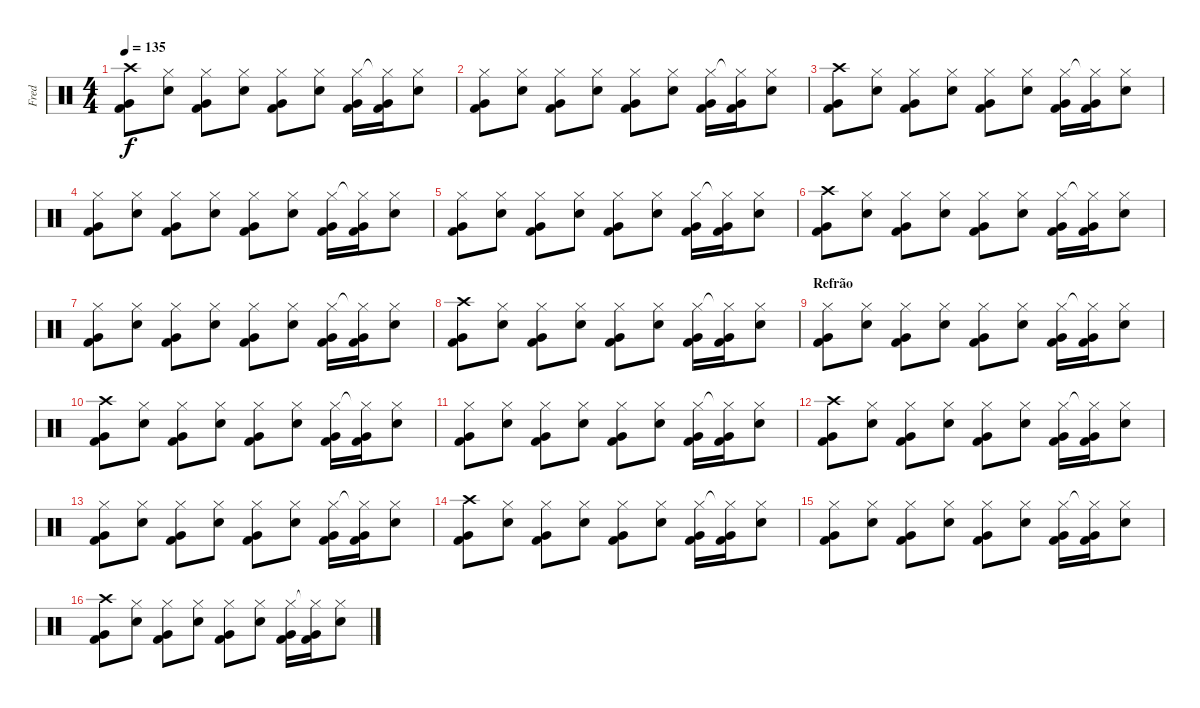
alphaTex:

\track ("Fred" "Fred") {instrument percussion}
\staff {score}
\articulation defaults
\ts (4 4)
\tempo 135
\clef neutral
\ks c
("Very Low Tom (hit)" "Kick (hit) 2" "Crash high (hit)").8{dy f} ("Snare (hit) 2" "Hi-Hat (closed)").8 ("Very Low Tom (hit)" "Kick (hit) 2" "Hi-Hat (closed)").8 ("Snare (hit) 2" "Hi-Hat (closed)").8 ("Very Low Tom (hit)" "Kick (hit) 2" "Hi-Hat (closed)").8 ("Snare (hit) 2" "Hi-Hat (closed)").8 ("Very Low Tom (hit)" "Kick (hit) 2" "Hi-Hat (closed)").16 ("Very Low Tom (hit)" "Kick (hit) 2" "Hi-Hat (closed)"{t}).16 ("Snare (hit) 2" "Hi-Hat (closed)").8 |
("Very Low Tom (hit)" "Kick (hit) 2" "Hi-Hat (closed)").8 ("Snare (hit) 2" "Hi-Hat (closed)").8 ("Very Low Tom (hit)" "Kick (hit) 2" "Hi-Hat (closed)").8 ("Snare (hit) 2" "Hi-Hat (closed)").8 ("Very Low Tom (hit)" "Kick (hit) 2" "Hi-Hat (closed)").8 ("Snare (hit) 2" "Hi-Hat (closed)").8 ("Very Low Tom (hit)" "Kick (hit) 2" "Hi-Hat (closed)").16 ("Very Low Tom (hit)" "Kick (hit) 2" "Hi-Hat (closed)"{t}).16 ("Snare (hit) 2" "Hi-Hat (closed)").8 |
("Very Low Tom (hit)" "Kick (hit) 2" "Crash high (hit)").8 ("Snare (hit) 2" "Hi-Hat (closed)").8 ("Very Low Tom (hit)" "Kick (hit) 2" "Hi-Hat (closed)").8 ("Snare (hit) 2" "Hi-Hat (closed)").8 ("Very Low Tom (hit)" "Kick (hit) 2" "Hi-Hat (closed)").8 ("Snare (hit) 2" "Hi-Hat (closed)").8 ("Very Low Tom (hit)" "Kick (hit) 2" "Hi-Hat (closed)").16 ("Very Low Tom (hit)" "Kick (hit) 2" "Hi-Hat (closed)"{t}).16 ("Snare (hit) 2" "Hi-Hat (closed)").8 |
("Very Low Tom (hit)" "Kick (hit) 2" "Hi-Hat (closed)").8 ("Snare (hit) 2" "Hi-Hat (closed)").8 ("Very Low Tom (hit)" "Kick (hit) 2" "Hi-Hat (closed)").8 ("Snare (hit) 2" "Hi-Hat (closed)").8 ("Very Low Tom (hit)" "Kick (hit) 2" "Hi-Hat (closed)").8 ("Snare (hit) 2" "Hi-Hat (closed)").8 ("Very Low Tom (hit)" "Kick (hit) 2" "Hi-Hat (closed)").16 ("Very Low Tom (hit)" "Kick (hit) 2" "Hi-Hat (closed)"{t}).16 ("Snare (hit) 2" "Hi-Hat (closed)").8 |
("Very Low Tom (hit)" "Kick (hit) 2" "Hi-Hat (closed)").8 ("Snare (hit) 2" "Hi-Hat (closed)").8 ("Very Low Tom (hit)" "Kick (hit) 2" "Hi-Hat (closed)").8 ("Snare (hit) 2" "Hi-Hat (closed)").8 ("Very Low Tom (hit)" "Kick (hit) 2" "Hi-Hat (closed)").8 ("Snare (hit) 2" "Hi-Hat (closed)").8 ("Very Low Tom (hit)" "Kick (hit) 2" "Hi-Hat (closed)").16 ("Very Low Tom (hit)" "Kick (hit) 2" "Hi-Hat (closed)"{t}).16 ("Snare (hit) 2" "Hi-Hat (closed)").8 |
("Very Low Tom (hit)" "Kick (hit) 2" "Crash high (hit)").8 ("Snare (hit) 2" "Hi-Hat (closed)").8 ("Very Low Tom (hit)" "Kick (hit) 2" "Hi-Hat (closed)").8 ("Snare (hit) 2" "Hi-Hat (closed)").8 ("Very Low Tom (hit)" "Kick (hit) 2" "Hi-Hat (closed)").8 ("Snare (hit) 2" "Hi-Hat (closed)").8 ("Very Low Tom (hit)" "Kick (hit) 2" "Hi-Hat (closed)").16 ("Very Low Tom (hit)" "Kick (hit) 2" "Hi-Hat (closed)"{t}).16 ("Snare (hit) 2" "Hi-Hat (closed)").8 |
("Very Low Tom (hit)" "Kick (hit) 2" "Hi-Hat (closed)").8 ("Snare (hit) 2" "Hi-Hat (closed)").8 ("Very Low Tom (hit)" "Kick (hit) 2" "Hi-Hat (closed)").8 ("Snare (hit) 2" "Hi-Hat (closed)").8 ("Very Low Tom (hit)" "Kick (hit) 2" "Hi-Hat (closed)").8 ("Snare (hit) 2" "Hi-Hat (closed)").8 ("Very Low Tom (hit)" "Kick (hit) 2" "Hi-Hat (closed)").16 ("Very Low Tom (hit)" "Kick (hit) 2" "Hi-Hat (closed)"{t}).16 ("Snare (hit) 2" "Hi-Hat (closed)").8 |
("Very Low Tom (hit)" "Kick (hit) 2" "Crash high (hit)").8 ("Snare (hit) 2" "Hi-Hat (closed)").8 ("Very Low Tom (hit)" "Kick (hit) 2" "Hi-Hat (closed)").8 ("Snare (hit) 2" "Hi-Hat (closed)").8 ("Very Low Tom (hit)" "Kick (hit) 2" "Hi-Hat (closed)").8 ("Snare (hit) 2" "Hi-Hat (closed)").8 ("Very Low Tom (hit)" "Kick (hit) 2" "Hi-Hat (closed)").16 ("Very Low Tom (hit)" "Kick (hit) 2" "Hi-Hat (closed)"{t}).16 ("Snare (hit) 2" "Hi-Hat (closed)").8 |
\section ("" "Refrão")
("Very Low Tom (hit)" "Kick (hit) 2" "Hi-Hat (closed)").8 ("Snare (hit) 2" "Hi-Hat (closed)").8 ("Very Low Tom (hit)" "Kick (hit) 2" "Hi-Hat (closed)").8 ("Snare (hit) 2" "Hi-Hat (closed)").8 ("Very Low Tom (hit)" "Kick (hit) 2" "Hi-Hat (closed)").8 ("Snare (hit) 2" "Hi-Hat (closed)").8 ("Very Low Tom (hit)" "Kick (hit) 2" "Hi-Hat (closed)").16 ("Very Low Tom (hit)" "Kick (hit) 2" "Hi-Hat (closed)"{t}).16 ("Snare (hit) 2" "Hi-Hat (closed)").8 |
("Very Low Tom (hit)" "Kick (hit) 2" "Crash high (hit)").8 ("Snare (hit) 2" "Hi-Hat (closed)").8 ("Very Low Tom (hit)" "Kick (hit) 2" "Hi-Hat (closed)").8 ("Snare (hit) 2" "Hi-Hat (closed)").8 ("Very Low Tom (hit)" "Kick (hit) 2" "Hi-Hat (closed)").8 ("Snare (hit) 2" "Hi-Hat (closed)").8 ("Very Low Tom (hit)" "Kick (hit) 2" "Hi-Hat (closed)").16 ("Very Low Tom (hit)" "Kick (hit) 2" "Hi-Hat (closed)"{t}).16 ("Snare (hit) 2" "Hi-Hat (closed)").8 |
("Very Low Tom (hit)" "Kick (hit) 2" "Hi-Hat (closed)").8 ("Snare (hit) 2" "Hi-Hat (closed)").8 ("Very Low Tom (hit)" "Kick (hit) 2" "Hi-Hat (closed)").8 ("Snare (hit) 2" "Hi-Hat (closed)").8 ("Very Low Tom (hit)" "Kick (hit) 2" "Hi-Hat (closed)").8 ("Snare (hit) 2" "Hi-Hat (closed)").8 ("Very Low Tom (hit)" "Kick (hit) 2" "Hi-Hat (closed)").16 ("Very Low Tom (hit)" "Kick (hit) 2" "Hi-Hat (closed)"{t}).16 ("Snare (hit) 2" "Hi-Hat (closed)").8 |
("Very Low Tom (hit)" "Kick (hit) 2" "Crash high (hit)").8 ("Snare (hit) 2" "Hi-Hat (closed)").8 ("Very Low Tom (hit)" "Kick (hit) 2" "Hi-Hat (closed)").8 ("Snare (hit) 2" "Hi-Hat (closed)").8 ("Very Low Tom (hit)" "Kick (hit) 2" "Hi-Hat (closed)").8 ("Snare (hit) 2" "Hi-Hat (closed)").8 ("Very Low Tom (hit)" "Kick (hit) 2" "Hi-Hat (closed)").16 ("Very Low Tom (hit)" "Kick (hit) 2" "Hi-Hat (closed)"{t}).16 ("Snare (hit) 2" "Hi-Hat (closed)").8 |
("Very Low Tom (hit)" "Kick (hit) 2" "Hi-Hat (closed)").8 ("Snare (hit) 2" "Hi-Hat (closed)").8 ("Very Low Tom (hit)" "Kick (hit) 2" "Hi-Hat (closed)").8 ("Snare (hit) 2" "Hi-Hat (closed)").8 ("Very Low Tom (hit)" "Kick (hit) 2" "Hi-Hat (closed)").8 ("Snare (hit) 2" "Hi-Hat (closed)").8 ("Very Low Tom (hit)" "Kick (hit) 2" "Hi-Hat (closed)").16 ("Very Low Tom (hit)" "Kick (hit) 2" "Hi-Hat (closed)"{t}).16 ("Snare (hit) 2" "Hi-Hat (closed)").8 |
("Very Low Tom (hit)" "Kick (hit) 2" "Crash high (hit)").8 ("Snare (hit) 2" "Hi-Hat (closed)").8 ("Very Low Tom (hit)" "Kick (hit) 2" "Hi-Hat (closed)").8 ("Snare (hit) 2" "Hi-Hat (closed)").8 ("Very Low Tom (hit)" "Kick (hit) 2" "Hi-Hat (closed)").8 ("Snare (hit) 2" "Hi-Hat (closed)").8 ("Very Low Tom (hit)" "Kick (hit) 2" "Hi-Hat (closed)").16 ("Very Low Tom (hit)" "Kick (hit) 2" "Hi-Hat (closed)"{t}).16 ("Snare (hit) 2" "Hi-Hat (closed)").8 |
("Very Low Tom (hit)" "Kick (hit) 2" "Hi-Hat (closed)").8 ("Snare (hit) 2" "Hi-Hat (closed)").8 ("Very Low Tom (hit)" "Kick (hit) 2" "Hi-Hat (closed)").8 ("Snare (hit) 2" "Hi-Hat (closed)").8 ("Very Low Tom (hit)" "Kick (hit) 2" "Hi-Hat (closed)").8 ("Snare (hit) 2" "Hi-Hat (closed)").8 ("Very Low Tom (hit)" "Kick (hit) 2" "Hi-Hat (closed)").16 ("Very Low Tom (hit)" "Kick (hit) 2" "Hi-Hat (closed)"{t}).16 ("Snare (hit) 2" "Hi-Hat (closed)").8 |
("Very Low Tom (hit)" "Kick (hit) 2" "Crash high (hit)").8 ("Snare (hit) 2" "Hi-Hat (closed)").8 ("Very Low Tom (hit)" "Kick (hit) 2" "Hi-Hat (closed)").8 ("Snare (hit) 2" "Hi-Hat (closed)").8 ("Very Low Tom (hit)" "Kick (hit) 2" "Hi-Hat (closed)").8 ("Snare (hit) 2" "Hi-Hat (closed)").8 ("Very Low Tom (hit)" "Kick (hit) 2" "Hi-Hat (closed)").16 ("Very Low Tom (hit)" "Kick (hit) 2" "Hi-Hat (closed)"{t}).16 ("Snare (hit) 2" "Hi-Hat (closed)").8
